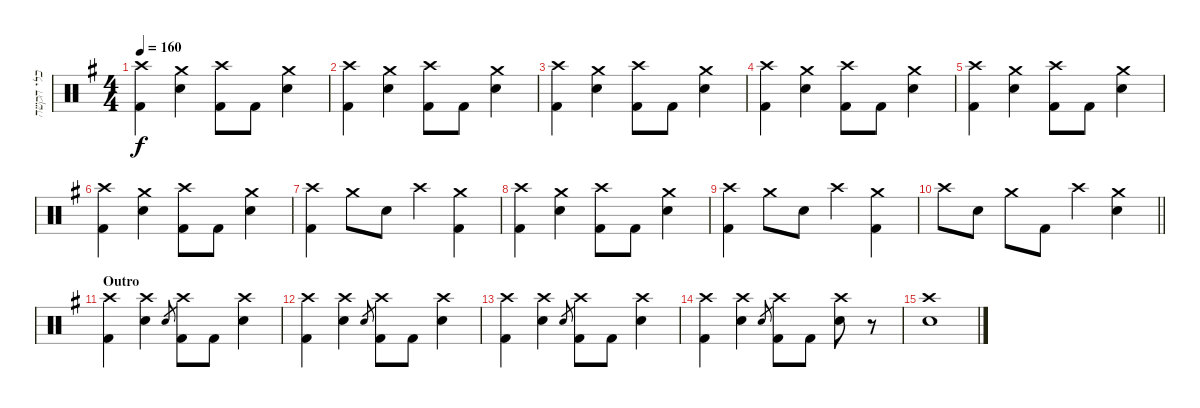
\track ("כלי הקשה" "כלי הקשה") {instrument percussion bank 127}
\staff {score}
\articulation defaults
\ts (4 4)
\tempo 160
\clef neutral
\ks eminor
("Crash high (hit)" "Kick (hit) 2").4{dy f} ("Crash medium (hit)" "Electric Snare (hit)").4 ("Crash high (hit)" "Kick (hit) 2").8 "Kick (hit) 2".8 ("Crash medium (hit)" "Electric Snare (hit)").4 |
("Crash high (hit)" "Kick (hit) 2").4 ("Crash medium (hit)" "Electric Snare (hit)").4 ("Crash high (hit)" "Kick (hit) 2").8 "Kick (hit) 2".8 ("Crash medium (hit)" "Electric Snare (hit)").4 |
("Crash high (hit)" "Kick (hit) 2").4 ("Crash medium (hit)" "Electric Snare (hit)").4 ("Crash high (hit)" "Kick (hit) 2").8 "Kick (hit) 2".8 ("Crash medium (hit)" "Electric Snare (hit)").4 |
("Crash high (hit)" "Kick (hit) 2").4 ("Crash medium (hit)" "Electric Snare (hit)").4 ("Crash high (hit)" "Kick (hit) 2").8 "Kick (hit) 2".8 ("Crash medium (hit)" "Electric Snare (hit)").4 |
("Crash high (hit)" "Kick (hit) 2").4 ("Crash medium (hit)" "Electric Snare (hit)").4 ("Crash high (hit)" "Kick (hit) 2").8 "Kick (hit) 2".8 ("Crash medium (hit)" "Electric Snare (hit)").4 |
("Crash high (hit)" "Kick (hit) 2").4 ("Crash medium (hit)" "Electric Snare (hit)").4 ("Crash high (hit)" "Kick (hit) 2").8 "Kick (hit) 2".8 ("Crash medium (hit)" "Electric Snare (hit)").4 |
("Crash high (hit)" "Kick (hit) 2").4 "Crash medium (hit)".8 "Electric Snare (hit)".8 "Crash high (hit)".4 ("Crash medium (hit)" "Kick (hit) 2").4 |
("Crash high (hit)" "Kick (hit) 2").4 ("Crash medium (hit)" "Electric Snare (hit)").4 ("Crash high (hit)" "Kick (hit) 2").8 "Kick (hit) 2".8 ("Crash medium (hit)" "Electric Snare (hit)").4 |
("Crash high (hit)" "Kick (hit) 2").4 "Crash medium (hit)".8 "Electric Snare (hit)".8 "Crash high (hit)".4 ("Crash medium (hit)" "Kick (hit) 2").4 |
\barLineRight lightlight "Crash high (hit)".8 "Electric Snare (hit)".8 "Crash medium (hit)".8 "Kick (hit) 2".8 "Crash high (hit)".4
("Crash medium (hit)" "Electric Snare (hit)").4 |
\section ("" "Outro")
("Crash high (hit)" "Kick (hit) 2").4 ("Crash high (hit)" "Electric Snare (hit)").4 "Electric Snare (hit)".8{gr} ("Crash high (hit)" "Kick (hit) 2").8 "Kick (hit) 2".8 ("Crash high (hit)" "Electric Snare (hit)").4 |
("Crash high (hit)" "Kick (hit) 2").4 ("Crash high (hit)" "Electric Snare (hit)").4 "Electric Snare (hit)".8{gr} ("Crash high (hit)" "Kick (hit) 2").8 "Kick (hit) 2".8 ("Crash high (hit)" "Electric Snare (hit)").4 |
("Crash high (hit)" "Kick (hit) 2").4 ("Crash high (hit)" "Electric Snare (hit)").4 "Electric Snare (hit)".8{gr} ("Crash high (hit)" "Kick (hit) 2").8 "Kick (hit) 2".8 ("Crash high (hit)" "Electric Snare (hit)").4 |
("Crash high (hit)" "Kick (hit) 2").4 ("Crash high (hit)" "Electric Snare (hit)").4 "Electric Snare (hit)".8{gr} ("Crash high (hit)" "Kick (hit) 2").8 "Kick (hit) 2".8 ("Crash high (hit)" "Electric Snare (hit)").8 r.8 |
("Crash high (hit)" "Electric Snare (hit)").1
